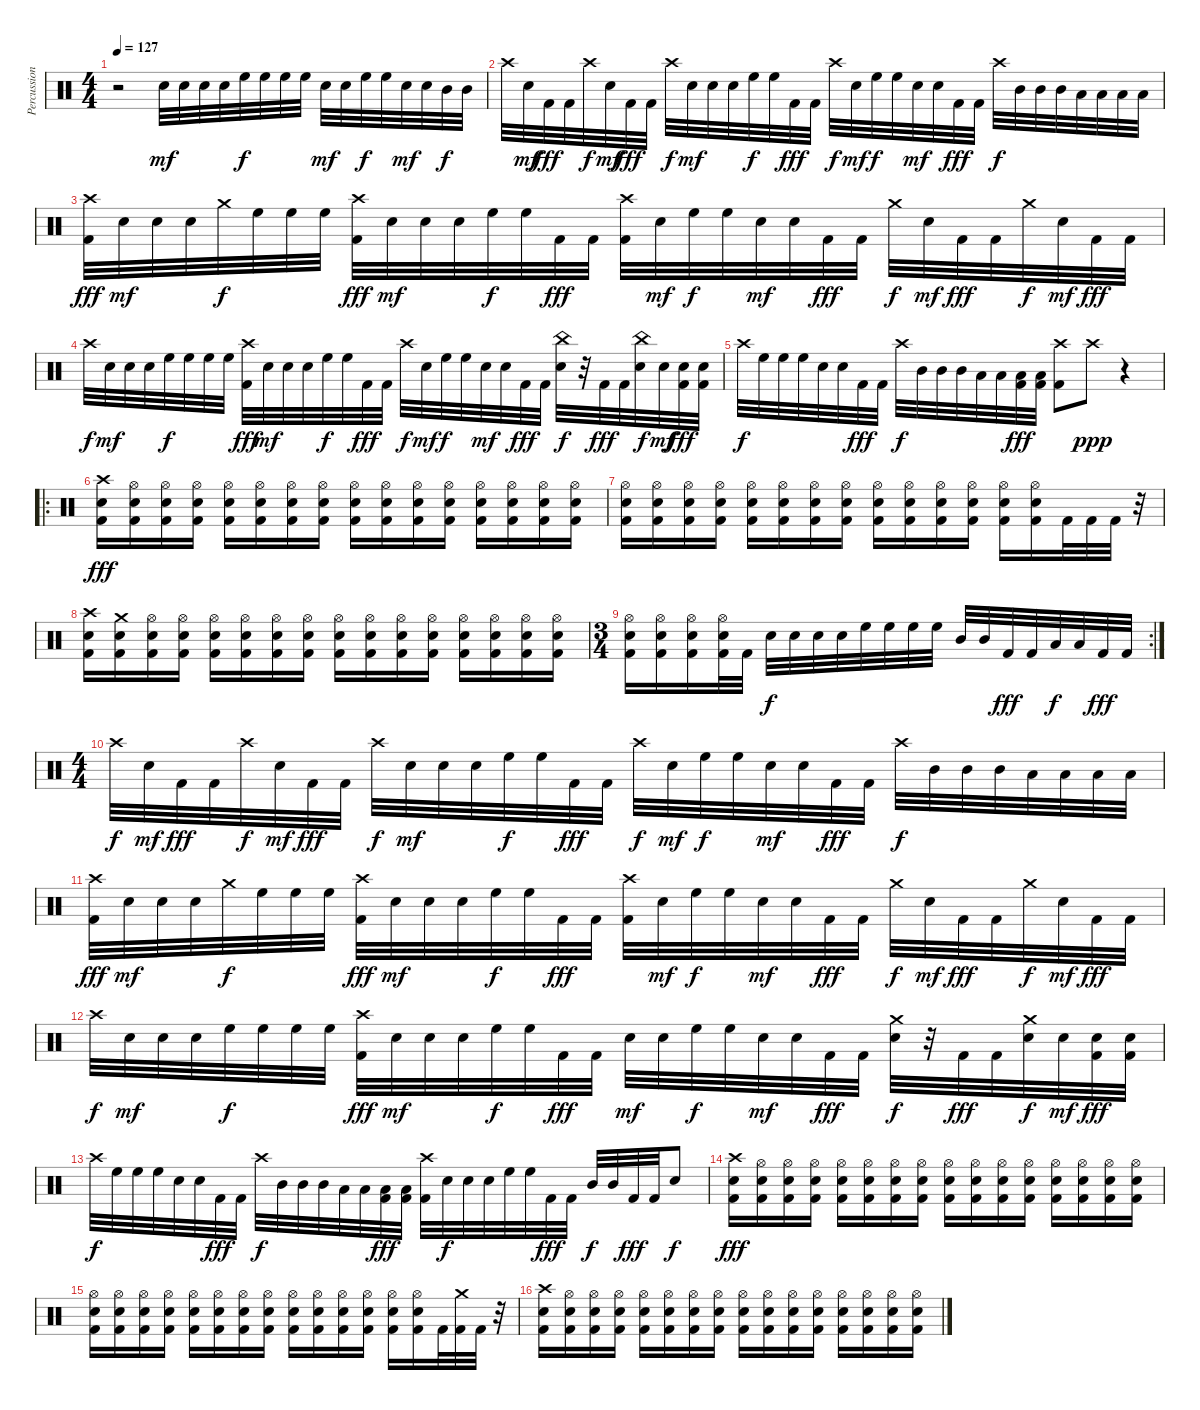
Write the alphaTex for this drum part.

\track ("Percussion" "Percussion") {instrument percussion}
\staff {score}
\articulation defaults
\ts (4 4)
\tempo 127
\clef neutral
\ks c
r.2{dy mf} "Electric Snare (hit)".32 "Electric Snare (hit)".32 "Electric Snare (hit)".32 "Electric Snare (hit)".32 "High Floor Tom (hit)".32{dy f} "High Floor Tom (hit)".32 "High Floor Tom (hit)".32 "High Floor Tom (hit)".32 "Electric Snare (hit)".32{dy mf} "Electric Snare (hit)".32 "High Floor Tom (hit)".32{dy f} "High Floor Tom (hit)".32 "Electric Snare (hit)".32{dy mf} "Electric Snare (hit)".32 "Mid Tom (hit)".32{dy f} "Mid Tom (hit)".32 |
"Crash high (hit)".32 "Electric Snare (hit)".32{dy mf} "Kick (hit) 2".32{dy fff} "Kick (hit) 2".32 "Crash high (hit)".32{dy f} "Electric Snare (hit)".32{dy mf} "Kick (hit) 2".32{dy fff} "Kick (hit) 2".32 "Crash high (hit)".32{dy f} "Electric Snare (hit)".32{dy mf} "Electric Snare (hit)".32 "Electric Snare (hit)".32 "High Floor Tom (hit)".32{dy f} "High Floor Tom (hit)".32 "Kick (hit) 2".32{dy fff} "Kick (hit) 2".32 "Crash high (hit)".32{dy f} "Electric Snare (hit)".32{dy mf} "High Floor Tom (hit)".32{dy f} "High Floor Tom (hit)".32 "Electric Snare (hit)".32{dy mf} "Electric Snare (hit)".32 "Kick (hit) 2".32{dy fff} "Kick (hit) 2".32 "Crash high (hit)".32{dy f} "Mid Tom (hit)".32 "Mid Tom (hit)".32 "Mid Tom (hit)".32 "Low Tom (hit)".32 "Low Tom (hit)".32 "Low Tom (hit)".32 "Low Tom (hit)".32 |
("Crash high (hit)" "Kick (hit) 2").32{dy fff} "Electric Snare (hit)".32{dy mf} "Electric Snare (hit)".32 "Electric Snare (hit)".32 "Crash medium (hit)".32{dy f} "High Floor Tom (hit)".32 "High Floor Tom (hit)".32 "High Floor Tom (hit)".32 ("Crash high (hit)" "Kick (hit) 2").32{dy fff} "Electric Snare (hit)".32{dy mf} "Electric Snare (hit)".32 "Electric Snare (hit)".32 "High Floor Tom (hit)".32{dy f} "High Floor Tom (hit)".32 "Kick (hit) 2".32{dy fff} "Kick (hit) 2".32 ("Crash high (hit)" "Kick (hit) 2").32 "Electric Snare (hit)".32{dy mf} "High Floor Tom (hit)".32{dy f} "High Floor Tom (hit)".32 "Electric Snare (hit)".32{dy mf} "Electric Snare (hit)".32 "Kick (hit) 2".32{dy fff} "Kick (hit) 2".32 "Crash medium (hit)".32{dy f} "Electric Snare (hit)".32{dy mf} "Kick (hit) 2".32{dy fff} "Kick (hit) 2".32 "Crash medium (hit)".32{dy f} "Electric Snare (hit)".32{dy mf} "Kick (hit) 2".32{dy fff} "Kick (hit) 2".32 |
"Crash high (hit)".32{dy f} "Electric Snare (hit)".32{dy mf} "Electric Snare (hit)".32 "Electric Snare (hit)".32 "High Floor Tom (hit)".32{dy f} "High Floor Tom (hit)".32 "High Floor Tom (hit)".32 "High Floor Tom (hit)".32 ("Crash high (hit)" "Kick (hit) 2").32{dy fff} "Electric Snare (hit)".32{dy mf} "Electric Snare (hit)".32 "Electric Snare (hit)".32 "High Floor Tom (hit)".32{dy f} "High Floor Tom (hit)".32 "Kick (hit) 2".32{dy fff} "Kick (hit) 2".32 "Crash high (hit)".32{dy f} "Electric Snare (hit)".32{dy mf} "High Floor Tom (hit)".32{dy f} "High Floor Tom (hit)".32 "Electric Snare (hit)".32{dy mf} "Electric Snare (hit)".32 "Kick (hit) 2".32{dy fff} "Kick (hit) 2".32 ("China (hit)" "Electric Snare (hit)").32{dy f} r.32 "Kick (hit) 2".32{dy fff} "Kick (hit) 2".32 ("China (hit)" "Electric Snare (hit)").32{dy f} "Electric Snare (hit)".32{dy mf} ("Electric Snare (hit)" "Kick (hit) 2").32{dy fff} ("Electric Snare (hit)" "Kick (hit) 2").32 |
"Crash high (hit)".32{dy f} "High Floor Tom (hit)".32 "High Floor Tom (hit)".32 "High Floor Tom (hit)".32 "Electric Snare (hit)".32 "Electric Snare (hit)".32 "Kick (hit) 2".32{dy fff} "Kick (hit) 2".32 "Crash high (hit)".32{dy f} "Mid Tom (hit)".32 "Mid Tom (hit)".32 "Mid Tom (hit)".32 "Low Tom (hit)".32 "Low Tom (hit)".32 ("Low Tom (hit)" "Kick (hit) 2").32{dy fff} ("Low Tom (hit)" "Kick (hit) 2").32 ("Crash high (hit)" "Kick (hit) 2").8 "Crash high (hit)".8{dy ppp} r.4 |
\ro
("Crash high (hit)" "Electric Snare (hit)" "Kick (hit) 2").16{dy fff} ("Hi-Hat (open)" "Electric Snare (hit)" "Kick (hit) 2").16 ("Hi-Hat (open)" "Electric Snare (hit)" "Kick (hit) 2").16 ("Hi-Hat (open)" "Electric Snare (hit)" "Kick (hit) 2").16 ("Hi-Hat (open)" "Electric Snare (hit)" "Kick (hit) 2").16 ("Hi-Hat (open)" "Electric Snare (hit)" "Kick (hit) 2").16 ("Hi-Hat (open)" "Electric Snare (hit)" "Kick (hit) 2").16 ("Hi-Hat (open)" "Electric Snare (hit)" "Kick (hit) 2").16 ("Hi-Hat (open)" "Electric Snare (hit)" "Kick (hit) 2").16 ("Hi-Hat (open)" "Electric Snare (hit)" "Kick (hit) 2").16 ("Hi-Hat (open)" "Electric Snare (hit)" "Kick (hit) 2").16 ("Hi-Hat (open)" "Electric Snare (hit)" "Kick (hit) 2").16 ("Hi-Hat (open)" "Electric Snare (hit)" "Kick (hit) 2").16 ("Hi-Hat (open)" "Electric Snare (hit)" "Kick (hit) 2").16 ("Hi-Hat (open)" "Electric Snare (hit)" "Kick (hit) 2").16 ("Hi-Hat (open)" "Electric Snare (hit)" "Kick (hit) 2").16 |
("Hi-Hat (open)" "Electric Snare (hit)" "Kick (hit) 2").16 ("Hi-Hat (open)" "Electric Snare (hit)" "Kick (hit) 2").16 ("Hi-Hat (open)" "Electric Snare (hit)" "Kick (hit) 2").16 ("Hi-Hat (open)" "Electric Snare (hit)" "Kick (hit) 2").16 ("Hi-Hat (open)" "Electric Snare (hit)" "Kick (hit) 2").16 ("Hi-Hat (open)" "Electric Snare (hit)" "Kick (hit) 2").16 ("Hi-Hat (open)" "Electric Snare (hit)" "Kick (hit) 2").16 ("Hi-Hat (open)" "Electric Snare (hit)" "Kick (hit) 2").16 ("Hi-Hat (open)" "Electric Snare (hit)" "Kick (hit) 2").16 ("Hi-Hat (open)" "Electric Snare (hit)" "Kick (hit) 2").16 ("Hi-Hat (open)" "Electric Snare (hit)" "Kick (hit) 2").16 ("Hi-Hat (open)" "Electric Snare (hit)" "Kick (hit) 2").16 ("Hi-Hat (open)" "Electric Snare (hit)" "Kick (hit) 2").16 ("Hi-Hat (open)" "Electric Snare (hit)" "Kick (hit) 2").16 "Kick (hit) 2".32 "Kick (hit) 2".32 "Kick (hit) 2".32 r.32 |
("Crash high (hit)" "Electric Snare (hit)" "Kick (hit) 2").16 ("Crash medium (hit)" "Electric Snare (hit)" "Kick (hit) 2").16 ("Hi-Hat (open)" "Electric Snare (hit)" "Kick (hit) 2").16 ("Hi-Hat (open)" "Electric Snare (hit)" "Kick (hit) 2").16 ("Hi-Hat (open)" "Electric Snare (hit)" "Kick (hit) 2").16 ("Hi-Hat (open)" "Electric Snare (hit)" "Kick (hit) 2").16 ("Hi-Hat (open)" "Electric Snare (hit)" "Kick (hit) 2").16 ("Hi-Hat (open)" "Electric Snare (hit)" "Kick (hit) 2").16 ("Hi-Hat (open)" "Electric Snare (hit)" "Kick (hit) 2").16 ("Hi-Hat (open)" "Electric Snare (hit)" "Kick (hit) 2").16 ("Hi-Hat (open)" "Electric Snare (hit)" "Kick (hit) 2").16 ("Hi-Hat (open)" "Electric Snare (hit)" "Kick (hit) 2").16 ("Hi-Hat (open)" "Electric Snare (hit)" "Kick (hit) 2").16 ("Hi-Hat (open)" "Electric Snare (hit)" "Kick (hit) 2").16 ("Hi-Hat (open)" "Electric Snare (hit)" "Kick (hit) 2").16 ("Hi-Hat (open)" "Electric Snare (hit)" "Kick (hit) 2").16 |
\rc 2
\ts (3 4)
("Hi-Hat (open)" "Electric Snare (hit)" "Kick (hit) 2").16 ("Hi-Hat (open)" "Electric Snare (hit)" "Kick (hit) 2").16 ("Hi-Hat (open)" "Electric Snare (hit)" "Kick (hit) 2").16 ("Hi-Hat (open)" "Electric Snare (hit)" "Kick (hit) 2").32 "Kick (hit) 2".32 "Electric Snare (hit)".32{dy f} "Electric Snare (hit)".32 "Electric Snare (hit)".32 "Electric Snare (hit)".32 "High Floor Tom (hit)".32 "High Floor Tom (hit)".32 "High Floor Tom (hit)".32 "High Floor Tom (hit)".32 "Mid Tom (hit)".32 "Mid Tom (hit)".32 "Kick (hit) 2".32{dy fff} "Kick (hit) 2".32 "Low Tom (hit)".32{dy f} "Low Tom (hit)".32 "Kick (hit) 2".32{dy fff} "Kick (hit) 2".32 |
\ts (4 4)
"Crash high (hit)".32{dy f} "Electric Snare (hit)".32{dy mf} "Kick (hit) 2".32{dy fff} "Kick (hit) 2".32 "Crash high (hit)".32{dy f} "Electric Snare (hit)".32{dy mf} "Kick (hit) 2".32{dy fff} "Kick (hit) 2".32 "Crash high (hit)".32{dy f} "Electric Snare (hit)".32{dy mf} "Electric Snare (hit)".32 "Electric Snare (hit)".32 "High Floor Tom (hit)".32{dy f} "High Floor Tom (hit)".32 "Kick (hit) 2".32{dy fff} "Kick (hit) 2".32 "Crash high (hit)".32{dy f} "Electric Snare (hit)".32{dy mf} "High Floor Tom (hit)".32{dy f} "High Floor Tom (hit)".32 "Electric Snare (hit)".32{dy mf} "Electric Snare (hit)".32 "Kick (hit) 2".32{dy fff} "Kick (hit) 2".32 "Crash high (hit)".32{dy f} "Mid Tom (hit)".32 "Mid Tom (hit)".32 "Mid Tom (hit)".32 "Low Tom (hit)".32 "Low Tom (hit)".32 "Low Tom (hit)".32 "Low Tom (hit)".32 |
("Crash high (hit)" "Kick (hit) 2").32{dy fff} "Electric Snare (hit)".32{dy mf} "Electric Snare (hit)".32 "Electric Snare (hit)".32 "Crash medium (hit)".32{dy f} "High Floor Tom (hit)".32 "High Floor Tom (hit)".32 "High Floor Tom (hit)".32 ("Crash high (hit)" "Kick (hit) 2").32{dy fff} "Electric Snare (hit)".32{dy mf} "Electric Snare (hit)".32 "Electric Snare (hit)".32 "High Floor Tom (hit)".32{dy f} "High Floor Tom (hit)".32 "Kick (hit) 2".32{dy fff} "Kick (hit) 2".32 ("Crash high (hit)" "Kick (hit) 2").32 "Electric Snare (hit)".32{dy mf} "High Floor Tom (hit)".32{dy f} "High Floor Tom (hit)".32 "Electric Snare (hit)".32{dy mf} "Electric Snare (hit)".32 "Kick (hit) 2".32{dy fff} "Kick (hit) 2".32 "Crash medium (hit)".32{dy f} "Electric Snare (hit)".32{dy mf} "Kick (hit) 2".32{dy fff} "Kick (hit) 2".32 "Crash medium (hit)".32{dy f} "Electric Snare (hit)".32{dy mf} "Kick (hit) 2".32{dy fff} "Kick (hit) 2".32 |
"Crash high (hit)".32{dy f} "Electric Snare (hit)".32{dy mf} "Electric Snare (hit)".32 "Electric Snare (hit)".32 "High Floor Tom (hit)".32{dy f} "High Floor Tom (hit)".32 "High Floor Tom (hit)".32 "High Floor Tom (hit)".32 ("Crash high (hit)" "Kick (hit) 2").32{dy fff} "Electric Snare (hit)".32{dy mf} "Electric Snare (hit)".32 "Electric Snare (hit)".32 "High Floor Tom (hit)".32{dy f} "High Floor Tom (hit)".32 "Kick (hit) 2".32{dy fff} "Kick (hit) 2".32 "Electric Snare (hit)".32{dy mf} "Electric Snare (hit)".32 "High Floor Tom (hit)".32{dy f} "High Floor Tom (hit)".32 "Electric Snare (hit)".32{dy mf} "Electric Snare (hit)".32 "Kick (hit) 2".32{dy fff} "Kick (hit) 2".32 ("Crash medium (hit)" "Electric Snare (hit)").32{dy f} r.32 "Kick (hit) 2".32{dy fff} "Kick (hit) 2".32 ("Crash medium (hit)" "Electric Snare (hit)").32{dy f} "Electric Snare (hit)".32{dy mf} ("Electric Snare (hit)" "Kick (hit) 2").32{dy fff} ("Electric Snare (hit)" "Kick (hit) 2").32 |
"Crash high (hit)".32{dy f} "High Floor Tom (hit)".32 "High Floor Tom (hit)".32 "High Floor Tom (hit)".32 "Electric Snare (hit)".32 "Electric Snare (hit)".32 "Kick (hit) 2".32{dy fff} "Kick (hit) 2".32 "Crash high (hit)".32{dy f} "Mid Tom (hit)".32 "Mid Tom (hit)".32 "Mid Tom (hit)".32 "Low Tom (hit)".32 "Low Tom (hit)".32 ("Low Tom (hit)" "Kick (hit) 2").32{dy fff} ("Low Tom (hit)" "Kick (hit) 2").32 ("Crash high (hit)" "Kick (hit) 2").32 "Electric Snare (hit)".32{dy f} "Electric Snare (hit)".32 "Electric Snare (hit)".32 "High Floor Tom (hit)".32 "High Floor Tom (hit)".32 "Kick (hit) 2".32{dy fff} "Kick (hit) 2".32 "Mid Tom (hit)".32{dy f} "Mid Tom (hit)".32 "Kick (hit) 2".32{dy fff} "Kick (hit) 2".32 "Electric Snare (hit)".8{dy f} |
("Crash high (hit)" "Electric Snare (hit)" "Kick (hit) 2").16{dy fff} ("Hi-Hat (open)" "Electric Snare (hit)" "Kick (hit) 2").16 ("Hi-Hat (open)" "Electric Snare (hit)" "Kick (hit) 2").16 ("Hi-Hat (open)" "Electric Snare (hit)" "Kick (hit) 2").16 ("Hi-Hat (open)" "Electric Snare (hit)" "Kick (hit) 2").16 ("Hi-Hat (open)" "Electric Snare (hit)" "Kick (hit) 2").16 ("Hi-Hat (open)" "Electric Snare (hit)" "Kick (hit) 2").16 ("Hi-Hat (open)" "Electric Snare (hit)" "Kick (hit) 2").16 ("Hi-Hat (open)" "Electric Snare (hit)" "Kick (hit) 2").16 ("Hi-Hat (open)" "Electric Snare (hit)" "Kick (hit) 2").16 ("Hi-Hat (open)" "Electric Snare (hit)" "Kick (hit) 2").16 ("Hi-Hat (open)" "Electric Snare (hit)" "Kick (hit) 2").16 ("Hi-Hat (open)" "Electric Snare (hit)" "Kick (hit) 2").16 ("Hi-Hat (open)" "Electric Snare (hit)" "Kick (hit) 2").16 ("Hi-Hat (open)" "Electric Snare (hit)" "Kick (hit) 2").16 ("Hi-Hat (open)" "Electric Snare (hit)" "Kick (hit) 2").16 |
("Hi-Hat (open)" "Electric Snare (hit)" "Kick (hit) 2").16 ("Hi-Hat (open)" "Electric Snare (hit)" "Kick (hit) 2").16 ("Hi-Hat (open)" "Electric Snare (hit)" "Kick (hit) 2").16 ("Hi-Hat (open)" "Electric Snare (hit)" "Kick (hit) 2").16 ("Hi-Hat (open)" "Electric Snare (hit)" "Kick (hit) 2").16 ("Hi-Hat (open)" "Electric Snare (hit)" "Kick (hit) 2").16 ("Hi-Hat (open)" "Electric Snare (hit)" "Kick (hit) 2").16 ("Hi-Hat (open)" "Electric Snare (hit)" "Kick (hit) 2").16 ("Hi-Hat (open)" "Electric Snare (hit)" "Kick (hit) 2").16 ("Hi-Hat (open)" "Electric Snare (hit)" "Kick (hit) 2").16 ("Hi-Hat (open)" "Electric Snare (hit)" "Kick (hit) 2").16 ("Hi-Hat (open)" "Electric Snare (hit)" "Kick (hit) 2").16 ("Hi-Hat (open)" "Electric Snare (hit)" "Kick (hit) 2").16 ("Hi-Hat (open)" "Electric Snare (hit)" "Kick (hit) 2").16 "Kick (hit) 2".32 ("Crash medium (hit)" "Kick (hit) 2").32 "Kick (hit) 2".32 r.32 |
("Crash high (hit)" "Electric Snare (hit)" "Kick (hit) 2").16 ("Hi-Hat (open)" "Electric Snare (hit)" "Kick (hit) 2").16 ("Hi-Hat (open)" "Electric Snare (hit)" "Kick (hit) 2").16 ("Hi-Hat (open)" "Electric Snare (hit)" "Kick (hit) 2").16 ("Hi-Hat (open)" "Electric Snare (hit)" "Kick (hit) 2").16 ("Hi-Hat (open)" "Electric Snare (hit)" "Kick (hit) 2").16 ("Hi-Hat (open)" "Electric Snare (hit)" "Kick (hit) 2").16 ("Hi-Hat (open)" "Electric Snare (hit)" "Kick (hit) 2").16 ("Hi-Hat (open)" "Electric Snare (hit)" "Kick (hit) 2").16 ("Hi-Hat (open)" "Electric Snare (hit)" "Kick (hit) 2").16 ("Hi-Hat (open)" "Electric Snare (hit)" "Kick (hit) 2").16 ("Hi-Hat (open)" "Electric Snare (hit)" "Kick (hit) 2").16 ("Hi-Hat (open)" "Electric Snare (hit)" "Kick (hit) 2").16 ("Hi-Hat (open)" "Electric Snare (hit)" "Kick (hit) 2").16 ("Hi-Hat (open)" "Electric Snare (hit)" "Kick (hit) 2").16 ("Hi-Hat (open)" "Electric Snare (hit)" "Kick (hit) 2").16
